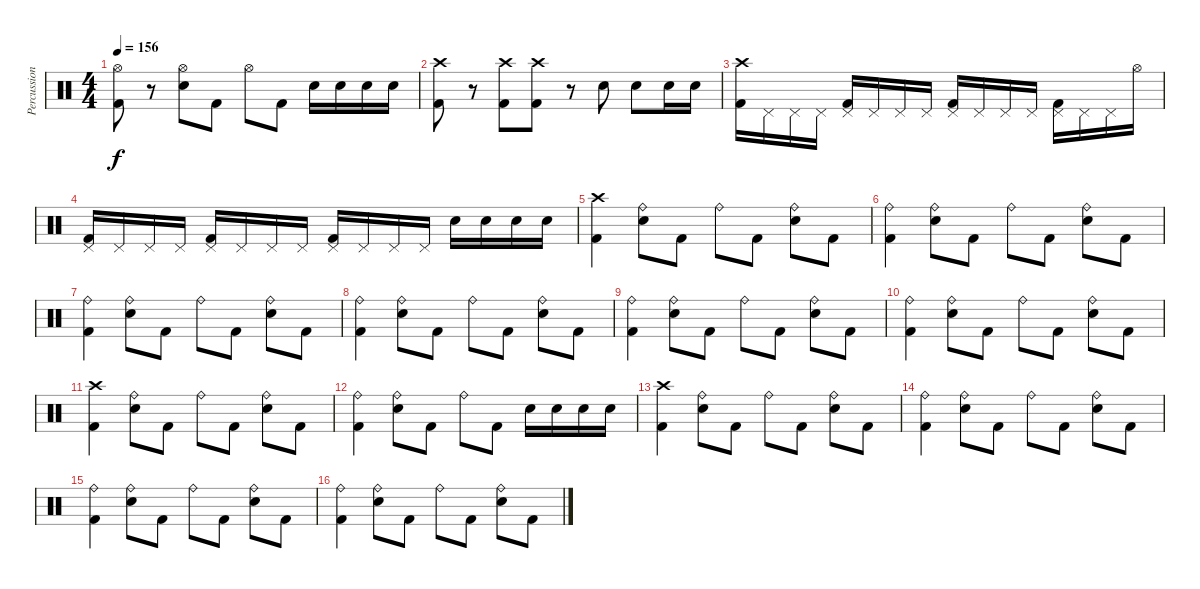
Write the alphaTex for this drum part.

\track ("Percussion" "Percussion") {instrument percussion}
\staff {score}
\articulation defaults
\ts (4 4)
\tempo 156
\clef neutral
\ks c
("Hi-Hat (open)" "Kick (hit) 2").8{dy f} r.8 ("Hi-Hat (open)" "Snare (hit) 2").8 "Kick (hit) 2".8 "Hi-Hat (open)".8 "Kick (hit) 2".8 "Snare (hit) 2".16 "Snare (hit) 2".16 "Snare (hit) 2".16 "Snare (hit) 2".16 |
("Crash high (hit)" "Kick (hit) 2").8 r.8 ("Crash high (hit)" "Kick (hit) 2").8 ("Crash high (hit)" "Kick (hit) 2").8 r.8 "Snare (hit) 2".8 "Snare (hit) 2".8 "Snare (hit) 2".16 "Snare (hit) 2".16 |
("Crash high (hit)" "Kick (hit) 2").16 "Pedal Hi-Hat (hit)".16 "Pedal Hi-Hat (hit)".16 "Pedal Hi-Hat (hit)".16 ("Pedal Hi-Hat (hit)" "Kick (hit) 2").16 "Pedal Hi-Hat (hit)".16 "Pedal Hi-Hat (hit)".16 "Pedal Hi-Hat (hit)".16 ("Pedal Hi-Hat (hit)" "Kick (hit) 2").16 "Pedal Hi-Hat (hit)".16 "Pedal Hi-Hat (hit)".16 "Pedal Hi-Hat (hit)".16 ("Pedal Hi-Hat (hit)" "Kick (hit) 2").16 "Pedal Hi-Hat (hit)".16 "Pedal Hi-Hat (hit)".16 "Hi-Hat (open)".16 |
("Pedal Hi-Hat (hit)" "Kick (hit) 2").16 "Pedal Hi-Hat (hit)".16 "Pedal Hi-Hat (hit)".16 "Pedal Hi-Hat (hit)".16 ("Pedal Hi-Hat (hit)" "Kick (hit) 2").16 "Pedal Hi-Hat (hit)".16 "Pedal Hi-Hat (hit)".16 "Pedal Hi-Hat (hit)".16 ("Pedal Hi-Hat (hit)" "Kick (hit) 2").16 "Pedal Hi-Hat (hit)".16 "Pedal Hi-Hat (hit)".16 "Pedal Hi-Hat (hit)".16 "Snare (hit) 2".16 "Snare (hit) 2".16 "Snare (hit) 2".16 "Snare (hit) 2".16 |
("Crash high (hit)" "Kick (hit) 2").4 ("Ride (bell)" "Snare (hit) 2").8 "Kick (hit) 2".8 "Ride (bell)".8 "Kick (hit) 2".8 ("Ride (bell)" "Snare (hit) 2").8 "Kick (hit) 2".8 |
("Ride (bell)" "Kick (hit) 2").4 ("Ride (bell)" "Snare (hit) 2").8 "Kick (hit) 2".8 "Ride (bell)".8 "Kick (hit) 2".8 ("Ride (bell)" "Snare (hit) 2").8 "Kick (hit) 2".8 |
("Ride (bell)" "Kick (hit) 2").4 ("Ride (bell)" "Snare (hit) 2").8 "Kick (hit) 2".8 "Ride (bell)".8 "Kick (hit) 2".8 ("Ride (bell)" "Snare (hit) 2").8 "Kick (hit) 2".8 |
("Ride (bell)" "Kick (hit) 2").4 ("Ride (bell)" "Snare (hit) 2").8 "Kick (hit) 2".8 "Ride (bell)".8 "Kick (hit) 2".8 ("Ride (bell)" "Snare (hit) 2").8 "Kick (hit) 2".8 |
("Ride (bell)" "Kick (hit) 2").4 ("Ride (bell)" "Snare (hit) 2").8 "Kick (hit) 2".8 "Ride (bell)".8 "Kick (hit) 2".8 ("Ride (bell)" "Snare (hit) 2").8 "Kick (hit) 2".8 |
("Ride (bell)" "Kick (hit) 2").4 ("Ride (bell)" "Snare (hit) 2").8 "Kick (hit) 2".8 "Ride (bell)".8 "Kick (hit) 2".8 ("Ride (bell)" "Snare (hit) 2").8 "Kick (hit) 2".8 |
("Crash high (hit)" "Kick (hit) 2").4 ("Ride (bell)" "Snare (hit) 2").8 "Kick (hit) 2".8 "Ride (bell)".8 "Kick (hit) 2".8 ("Ride (bell)" "Snare (hit) 2").8 "Kick (hit) 2".8 |
("Ride (bell)" "Kick (hit) 2").4 ("Ride (bell)" "Snare (hit) 2").8 "Kick (hit) 2".8 "Ride (bell)".8 "Kick (hit) 2".8 "Snare (hit) 2".16 "Snare (hit) 2".16 "Snare (hit) 2".16 "Snare (hit) 2".16 |
("Crash high (hit)" "Kick (hit) 2").4 ("Ride (bell)" "Snare (hit) 2").8 "Kick (hit) 2".8 "Ride (bell)".8 "Kick (hit) 2".8 ("Ride (bell)" "Snare (hit) 2").8 "Kick (hit) 2".8 |
("Ride (bell)" "Kick (hit) 2").4 ("Ride (bell)" "Snare (hit) 2").8 "Kick (hit) 2".8 "Ride (bell)".8 "Kick (hit) 2".8 ("Ride (bell)" "Snare (hit) 2").8 "Kick (hit) 2".8 |
("Ride (bell)" "Kick (hit) 2").4 ("Ride (bell)" "Snare (hit) 2").8 "Kick (hit) 2".8 "Ride (bell)".8 "Kick (hit) 2".8 ("Ride (bell)" "Snare (hit) 2").8 "Kick (hit) 2".8 |
("Ride (bell)" "Kick (hit) 2").4 ("Ride (bell)" "Snare (hit) 2").8 "Kick (hit) 2".8 "Ride (bell)".8 "Kick (hit) 2".8 ("Ride (bell)" "Snare (hit) 2").8 "Kick (hit) 2".8
